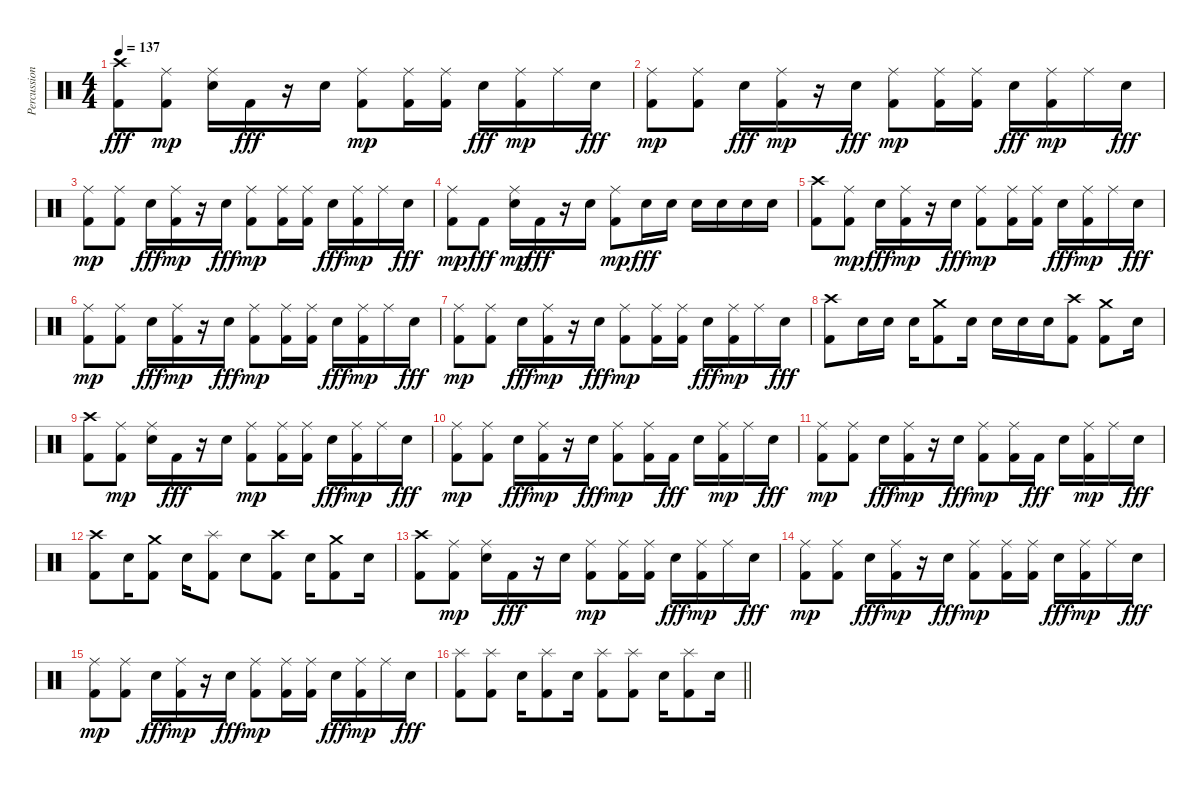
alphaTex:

\track ("Percussion" "Percussion") {instrument percussion}
\staff {score}
\articulation defaults
\ts (4 4)
\tempo 137
\clef neutral
\ks c
("Kick (hit) 2" "Crash high (hit)").8{dy fff} ("Kick (hit) 2" "Ride (middle)").8{dy mp} ("Electric Snare (hit)" "Ride (middle)").16 "Kick (hit) 2".16{dy fff} r.16 "Electric Snare (hit)".16 ("Kick (hit) 2" "Ride (middle)").8{dy mp} ("Kick (hit) 2" "Ride (middle)").16 ("Kick (hit) 2" "Ride (middle)").16 "Electric Snare (hit)".16{dy fff} ("Kick (hit) 2" "Ride (middle)").16{dy mp} "Ride (middle)".16 "Electric Snare (hit)".16{dy fff} |
("Kick (hit) 2" "Ride (middle)").8{dy mp} ("Kick (hit) 2" "Ride (middle)").8 "Electric Snare (hit)".16{dy fff} ("Kick (hit) 2" "Ride (middle)").16{dy mp} r.16 "Electric Snare (hit)".16{dy fff} ("Kick (hit) 2" "Ride (middle)").8{dy mp} ("Kick (hit) 2" "Ride (middle)").16 ("Kick (hit) 2" "Ride (middle)").16 "Electric Snare (hit)".16{dy fff} ("Kick (hit) 2" "Ride (middle)").16{dy mp} "Ride (middle)".16 "Electric Snare (hit)".16{dy fff} |
("Kick (hit) 2" "Ride (middle)").8{dy mp} ("Kick (hit) 2" "Ride (middle)").8 "Electric Snare (hit)".16{dy fff} ("Kick (hit) 2" "Ride (middle)").16{dy mp} r.16 "Electric Snare (hit)".16{dy fff} ("Kick (hit) 2" "Ride (middle)").8{dy mp} ("Kick (hit) 2" "Ride (middle)").16 ("Kick (hit) 2" "Ride (middle)").16 "Electric Snare (hit)".16{dy fff} ("Kick (hit) 2" "Ride (middle)").16{dy mp} "Ride (middle)".16 "Electric Snare (hit)".16{dy fff} |
("Kick (hit) 2" "Ride (middle)").8{dy mp} "Kick (hit) 2".8{dy fff} ("Electric Snare (hit)" "Ride (middle)").16{dy mp} "Kick (hit) 2".16{dy fff} r.16 "Electric Snare (hit)".16 ("Kick (hit) 2" "Ride (middle)").8{dy mp} "Electric Snare (hit)".16{dy fff} "Electric Snare (hit)".16 "Electric Snare (hit)".16 "Electric Snare (hit)".16 "Electric Snare (hit)".16 "Electric Snare (hit)".16 |
("Kick (hit) 2" "Crash high (hit)").8 ("Kick (hit) 2" "Ride (middle)").8{dy mp} "Electric Snare (hit)".16{dy fff} ("Kick (hit) 2" "Ride (middle)").16{dy mp} r.16 "Electric Snare (hit)".16{dy fff} ("Kick (hit) 2" "Ride (middle)").8{dy mp} ("Kick (hit) 2" "Ride (middle)").16 ("Kick (hit) 2" "Ride (middle)").16 "Electric Snare (hit)".16{dy fff} ("Kick (hit) 2" "Ride (middle)").16{dy mp} "Ride (middle)".16 "Electric Snare (hit)".16{dy fff} |
("Kick (hit) 2" "Ride (middle)").8{dy mp} ("Kick (hit) 2" "Ride (middle)").8 "Electric Snare (hit)".16{dy fff} ("Kick (hit) 2" "Ride (middle)").16{dy mp} r.16 "Electric Snare (hit)".16{dy fff} ("Kick (hit) 2" "Ride (middle)").8{dy mp} ("Kick (hit) 2" "Ride (middle)").16 ("Kick (hit) 2" "Ride (middle)").16 "Electric Snare (hit)".16{dy fff} ("Kick (hit) 2" "Ride (middle)").16{dy mp} "Ride (middle)".16 "Electric Snare (hit)".16{dy fff} |
("Kick (hit) 2" "Ride (middle)").8{dy mp} ("Kick (hit) 2" "Ride (middle)").8 "Electric Snare (hit)".16{dy fff} ("Kick (hit) 2" "Ride (middle)").16{dy mp} r.16 "Electric Snare (hit)".16{dy fff} ("Kick (hit) 2" "Ride (middle)").8{dy mp} ("Kick (hit) 2" "Ride (middle)").16 ("Kick (hit) 2" "Ride (middle)").16 "Electric Snare (hit)".16{dy fff} ("Kick (hit) 2" "Ride (middle)").16{dy mp} "Ride (middle)".16 "Electric Snare (hit)".16{dy fff} |
("Kick (hit) 2" "Crash high (hit)").8 "Electric Snare (hit)".16 "Electric Snare (hit)".16 "Electric Snare (hit)".16 ("Kick (hit) 2" "Crash medium (hit)").8 "Electric Snare (hit)".16 "Electric Snare (hit)".16 "Electric Snare (hit)".16 "Electric Snare (hit)".16 ("Kick (hit) 2" "Crash high (hit)").8 ("Kick (hit) 2" "Crash medium (hit)").8 "Electric Snare (hit)".16 |
("Kick (hit) 2" "Crash high (hit)").8 ("Kick (hit) 2" "Ride (middle)").8{dy mp} ("Electric Snare (hit)" "Ride (middle)").16 "Kick (hit) 2".16{dy fff} r.16 "Electric Snare (hit)".16 ("Kick (hit) 2" "Ride (middle)").8{dy mp} ("Kick (hit) 2" "Ride (middle)").16 ("Kick (hit) 2" "Ride (middle)").16 "Electric Snare (hit)".16{dy fff} ("Kick (hit) 2" "Ride (middle)").16{dy mp} "Ride (middle)".16 "Electric Snare (hit)".16{dy fff} |
("Kick (hit) 2" "Ride (middle)").8{dy mp} ("Kick (hit) 2" "Ride (middle)").8 "Electric Snare (hit)".16{dy fff} ("Kick (hit) 2" "Ride (middle)").16{dy mp} r.16 "Electric Snare (hit)".16{dy fff} ("Kick (hit) 2" "Ride (middle)").8{dy mp} ("Kick (hit) 2" "Ride (middle)").16 "Kick (hit) 2".16{dy fff} "Electric Snare (hit)".16 ("Kick (hit) 2" "Ride (middle)").16{dy mp} "Ride (middle)".16 "Electric Snare (hit)".16{dy fff} |
("Kick (hit) 2" "Ride (middle)").8{dy mp} ("Kick (hit) 2" "Ride (middle)").8 "Electric Snare (hit)".16{dy fff} ("Kick (hit) 2" "Ride (middle)").16{dy mp} r.16 "Electric Snare (hit)".16{dy fff} ("Kick (hit) 2" "Ride (middle)").8{dy mp} ("Kick (hit) 2" "Ride (middle)").16 "Kick (hit) 2".16{dy fff} "Electric Snare (hit)".16 ("Kick (hit) 2" "Ride (middle)").16{dy mp} "Ride (middle)".16 "Electric Snare (hit)".16{dy fff} |
("Kick (hit) 2" "Crash high (hit)").8 "Electric Snare (hit)".16 ("Kick (hit) 2" "Crash medium (hit)").8 "Electric Snare (hit)".16 ("Kick (hit) 2" "Splash (hit)").8 "Electric Snare (hit)".8 ("Kick (hit) 2" "Crash high (hit)").8 "Electric Snare (hit)".16 ("Kick (hit) 2" "Crash medium (hit)").8 "Electric Snare (hit)".16 |
("Kick (hit) 2" "Crash high (hit)").8 ("Kick (hit) 2" "Ride (middle)").8{dy mp} ("Electric Snare (hit)" "Ride (middle)").16 "Kick (hit) 2".16{dy fff} r.16 "Electric Snare (hit)".16 ("Kick (hit) 2" "Ride (middle)").8{dy mp} ("Kick (hit) 2" "Ride (middle)").16 ("Kick (hit) 2" "Ride (middle)").16 "Electric Snare (hit)".16{dy fff} ("Kick (hit) 2" "Ride (middle)").16{dy mp} "Ride (middle)".16 "Electric Snare (hit)".16{dy fff} |
("Kick (hit) 2" "Ride (middle)").8{dy mp} ("Kick (hit) 2" "Ride (middle)").8 "Electric Snare (hit)".16{dy fff} ("Kick (hit) 2" "Ride (middle)").16{dy mp} r.16 "Electric Snare (hit)".16{dy fff} ("Kick (hit) 2" "Ride (middle)").8{dy mp} ("Kick (hit) 2" "Ride (middle)").16 ("Kick (hit) 2" "Ride (middle)").16 "Electric Snare (hit)".16{dy fff} ("Kick (hit) 2" "Ride (middle)").16{dy mp} "Ride (middle)".16 "Electric Snare (hit)".16{dy fff} |
("Kick (hit) 2" "Ride (middle)").8{dy mp} ("Kick (hit) 2" "Ride (middle)").8 "Electric Snare (hit)".16{dy fff} ("Kick (hit) 2" "Ride (middle)").16{dy mp} r.16 "Electric Snare (hit)".16{dy fff} ("Kick (hit) 2" "Ride (middle)").8{dy mp} ("Kick (hit) 2" "Ride (middle)").16 ("Kick (hit) 2" "Ride (middle)").16 "Electric Snare (hit)".16{dy fff} ("Kick (hit) 2" "Ride (middle)").16{dy mp} "Ride (middle)".16 "Electric Snare (hit)".16{dy fff} |
\barLineRight lightlight
("Kick (hit) 2" "Splash (hit)").8 ("Kick (hit) 2" "Splash (hit)").8 "Electric Snare (hit)".16 ("Kick (hit) 2" "Splash (hit)").8 "Electric Snare (hit)".16 ("Kick (hit) 2" "Splash (hit)").8 ("Kick (hit) 2" "Splash (hit)").8 "Electric Snare (hit)".16 ("Kick (hit) 2" "Splash (hit)").8 "Electric Snare (hit)".16
